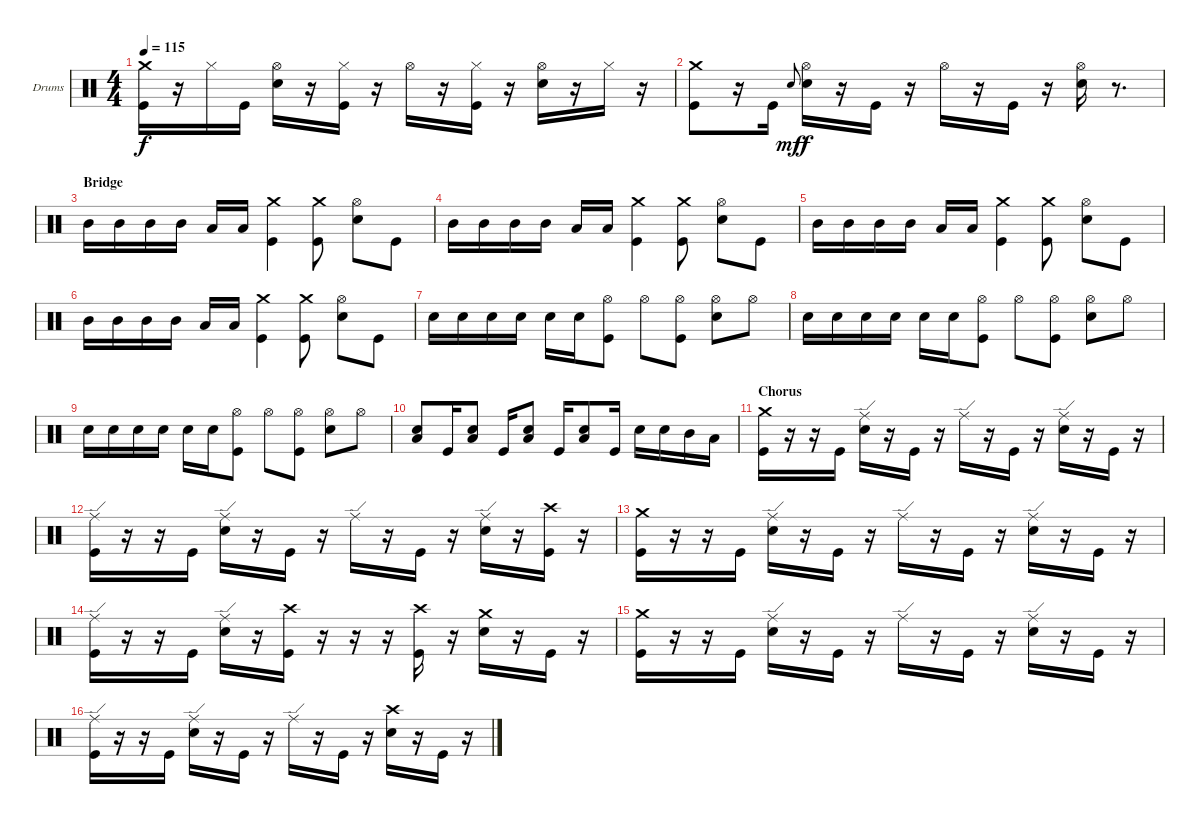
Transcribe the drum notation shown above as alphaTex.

\defaultSystemsLayout 4
\bracketExtendMode nobrackets
\firstSystemTrackNameOrientation horizontal
\otherSystemsTrackNameOrientation horizontal
\track ("Dave Krusen" "Drums") {instrument percussion}
\staff {score}
\articulation defaults
\ts (4 4)
\tempo 115
\clef neutral
\ks c
("Crash medium (hit)" "Kick (hit)").16{dy f} r.16 "Hi-Hat (closed)".16 "Kick (hit)".16 ("Hi-Hat (open)" "Snare (hit) 2").16 r.16 ("Hi-Hat (closed)" "Kick (hit)").16 r.16 "Hi-Hat (open)".16 r.16 ("Hi-Hat (closed)" "Kick (hit)").16 r.16 ("Hi-Hat (open)" "Snare (hit) 2").16 r.16 "Hi-Hat (closed)".16 r.16 |
("Crash medium (hit)" "Kick (hit)").8 r.16 "Kick (hit)".16 "Snare (hit) 2".8{gr onbeat dy mf} ("Hi-Hat (open)" "Snare (hit) 2").16{dy f} r.16 "Kick (hit)".16 r.16 "Hi-Hat (open)".16 r.16 "Kick (hit)".16 r.16 ("Hi-Hat (open)" "Snare (hit) 2").16 r.8{d} |
\section ("" "Bridge")
"Mid Tom (hit)".16 "Mid Tom (hit)".16 "Mid Tom (hit)".16 "Mid Tom (hit)".16 "Low Tom (hit)".16 "Low Tom (hit)".16 ("Crash medium (hit)" "Kick (hit)").4 ("Crash medium (hit)" "Kick (hit)").8 ("Hi-Hat (open)" "Snare (hit) 2").8 "Kick (hit)".8 |
"Mid Tom (hit)".16 "Mid Tom (hit)".16 "Mid Tom (hit)".16 "Mid Tom (hit)".16 "Low Tom (hit)".16 "Low Tom (hit)".16 ("Crash medium (hit)" "Kick (hit)").4 ("Crash medium (hit)" "Kick (hit)").8 ("Hi-Hat (open)" "Snare (hit) 2").8 "Kick (hit)".8 |
"Mid Tom (hit)".16 "Mid Tom (hit)".16 "Mid Tom (hit)".16 "Mid Tom (hit)".16 "Low Tom (hit)".16 "Low Tom (hit)".16 ("Crash medium (hit)" "Kick (hit)").4 ("Crash medium (hit)" "Kick (hit)").8 ("Hi-Hat (open)" "Snare (hit) 2").8 "Kick (hit)".8 |
"Mid Tom (hit)".16 "Mid Tom (hit)".16 "Mid Tom (hit)".16 "Mid Tom (hit)".16 "Low Tom (hit)".16 "Low Tom (hit)".16 ("Crash medium (hit)" "Kick (hit)").4 ("Crash medium (hit)" "Kick (hit)").8 ("Hi-Hat (open)" "Snare (hit) 2").8 "Kick (hit)".8 |
"Snare (hit) 2".16 "Snare (hit) 2".16 "Snare (hit) 2".16 "Snare (hit) 2".16 "Snare (hit) 2".16 "Snare (hit) 2".16 ("Hi-Hat (open)" "Kick (hit)").8 "Hi-Hat (open)".8 ("Hi-Hat (open)" "Kick (hit)").8 ("Hi-Hat (open)" "Snare (hit) 2").8 "Hi-Hat (open)".8 |
"Snare (hit) 2".16 "Snare (hit) 2".16 "Snare (hit) 2".16 "Snare (hit) 2".16 "Snare (hit) 2".16 "Snare (hit) 2".16 ("Hi-Hat (open)" "Kick (hit)").8 "Hi-Hat (open)".8 ("Hi-Hat (open)" "Kick (hit)").8 ("Hi-Hat (open)" "Snare (hit) 2").8 "Hi-Hat (open)".8 |
"Snare (hit) 2".16 "Snare (hit) 2".16 "Snare (hit) 2".16 "Snare (hit) 2".16 "Snare (hit) 2".16 "Snare (hit) 2".16 ("Hi-Hat (open)" "Kick (hit)").8 "Hi-Hat (open)".8 ("Hi-Hat (open)" "Kick (hit)").8 ("Hi-Hat (open)" "Snare (hit) 2").8 "Hi-Hat (open)".8 |
("Snare (hit) 2" "Low Tom (hit)").8 "Kick (hit)".16 ("Snare (hit) 2" "Low Tom (hit)").8 "Kick (hit)".16 ("Snare (hit) 2" "Low Tom (hit)").8 "Kick (hit)".16 ("Snare (hit) 2" "Low Tom (hit)").8 "Kick (hit)".16 "Snare (hit) 2".16 "Snare (hit) 2".16 "Mid Tom (hit)".16 "Low Tom (hit)".16 |
\section ("" "Chorus")
("Crash medium (hit)" "Kick (hit)").16 r.16 r.16 "Kick (hit)".16 ("Ride (edge)" "Snare (hit) 2").16 r.16 "Kick (hit)".16 r.16 "Ride (edge)".16 r.16 "Kick (hit)".16 r.16 ("Ride (edge)" "Snare (hit) 2").16 r.16 "Kick (hit)".16 r.16 |
("Ride (edge)" "Kick (hit)").16 r.16 r.16 "Kick (hit)".16 ("Ride (edge)" "Snare (hit) 2").16 r.16 "Kick (hit)".16 r.16 "Ride (edge)".16 r.16 "Kick (hit)".16 r.16 ("Ride (edge)" "Snare (hit) 2").16 r.16 ("Crash high (hit)" "Kick (hit)").16 r.16 |
("Crash medium (hit)" "Kick (hit)").16 r.16 r.16 "Kick (hit)".16 ("Ride (edge)" "Snare (hit) 2").16 r.16 "Kick (hit)".16 r.16 "Ride (edge)".16 r.16 "Kick (hit)".16 r.16 ("Ride (edge)" "Snare (hit) 2").16 r.16 "Kick (hit)".16 r.16 |
("Ride (edge)" "Kick (hit)").16 r.16 r.16 "Kick (hit)".16 ("Ride (edge)" "Snare (hit) 2").16 r.16 ("Crash high (hit)" "Kick (hit)").16 r.16 r.16 r.16 ("Crash high (hit)" "Kick (hit)").16 r.16 ("Crash medium (hit)" "Snare (hit) 2").16 r.16 "Kick (hit)".16 r.16 |
("Crash medium (hit)" "Kick (hit)").16 r.16 r.16 "Kick (hit)".16 ("Ride (edge)" "Snare (hit) 2").16 r.16 "Kick (hit)".16 r.16 "Ride (edge)".16 r.16 "Kick (hit)".16 r.16 ("Ride (edge)" "Snare (hit) 2").16 r.16 "Kick (hit)".16 r.16 |
("Ride (edge)" "Kick (hit)").16 r.16 r.16 "Kick (hit)".16 ("Ride (edge)" "Snare (hit) 2").16 r.16 "Kick (hit)".16 r.16 "Ride (edge)".16 r.16 "Kick (hit)".16 r.16 ("Crash high (hit)" "Snare (hit) 2").16 r.16 "Kick (hit)".16 r.16
